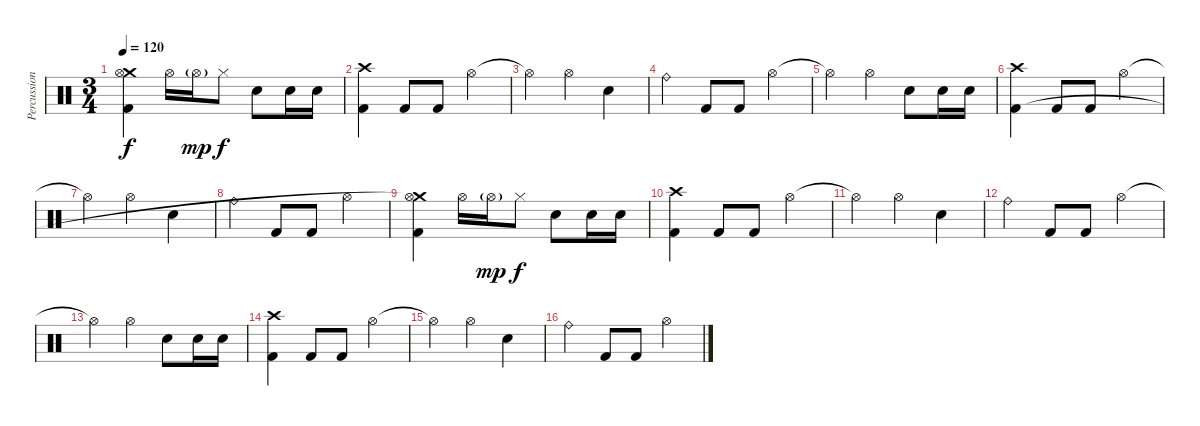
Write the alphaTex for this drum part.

\track ("Percussion" "Percussion") {instrument percussion}
\staff {score}
\articulation defaults
\ts (3 4)
\tempo 120
\clef neutral
\ks c
("Crash medium (hit)" "Hi-Hat (open)"{t} "Kick (hit) 2").4{dy f} "Hi-Hat (open)".16 "Hi-Hat (open)"{g}.16{dy mp} "Hi-Hat (closed)".8{dy f} "Electric Snare (hit)".8 "Electric Snare (hit)".16 "Electric Snare (hit)".16 |
("Crash high (hit)" "Kick (hit) 2").4 "Kick (hit) 2".8 "Kick (hit) 2".8 "Hi-Hat (open)".4 |
"Hi-Hat (open)"{t}.4 "Hi-Hat (open)".4 "Electric Snare (hit)".4 |
"Ride (bell)".4 "Kick (hit) 2".8 "Kick (hit) 2".8 "Hi-Hat (open)".4 |
"Hi-Hat (open)"{t}.4 "Hi-Hat (open)".4 "Electric Snare (hit)".8 "Electric Snare (hit)".16 "Electric Snare (hit)".16 |
("Crash high (hit)" "Kick (hit) 2").4 "Kick (hit) 2".8 "Kick (hit) 2".8 "Hi-Hat (open)".4 |
"Hi-Hat (open)"{t}.4 "Hi-Hat (open)".4 "Electric Snare (hit)".4 |
"Ride (bell)".4 "Kick (hit) 2".8 "Kick (hit) 2".8 "Hi-Hat (open)".4 |
("Crash medium (hit)" "Hi-Hat (open)"{t} "Kick (hit) 2").4 "Hi-Hat (open)".16 "Hi-Hat (open)"{g}.16{dy mp} "Hi-Hat (closed)".8{dy f} "Electric Snare (hit)".8 "Electric Snare (hit)".16 "Electric Snare (hit)".16 |
("Crash high (hit)" "Kick (hit) 2").4 "Kick (hit) 2".8 "Kick (hit) 2".8 "Hi-Hat (open)".4 |
"Hi-Hat (open)"{t}.4 "Hi-Hat (open)".4 "Electric Snare (hit)".4 |
"Ride (bell)".4 "Kick (hit) 2".8 "Kick (hit) 2".8 "Hi-Hat (open)".4 |
"Hi-Hat (open)"{t}.4 "Hi-Hat (open)".4 "Electric Snare (hit)".8 "Electric Snare (hit)".16 "Electric Snare (hit)".16 |
("Crash high (hit)" "Kick (hit) 2").4 "Kick (hit) 2".8 "Kick (hit) 2".8 "Hi-Hat (open)".4 |
"Hi-Hat (open)"{t}.4 "Hi-Hat (open)".4 "Electric Snare (hit)".4 |
"Ride (bell)".4 "Kick (hit) 2".8 "Kick (hit) 2".8 "Hi-Hat (open)".4
